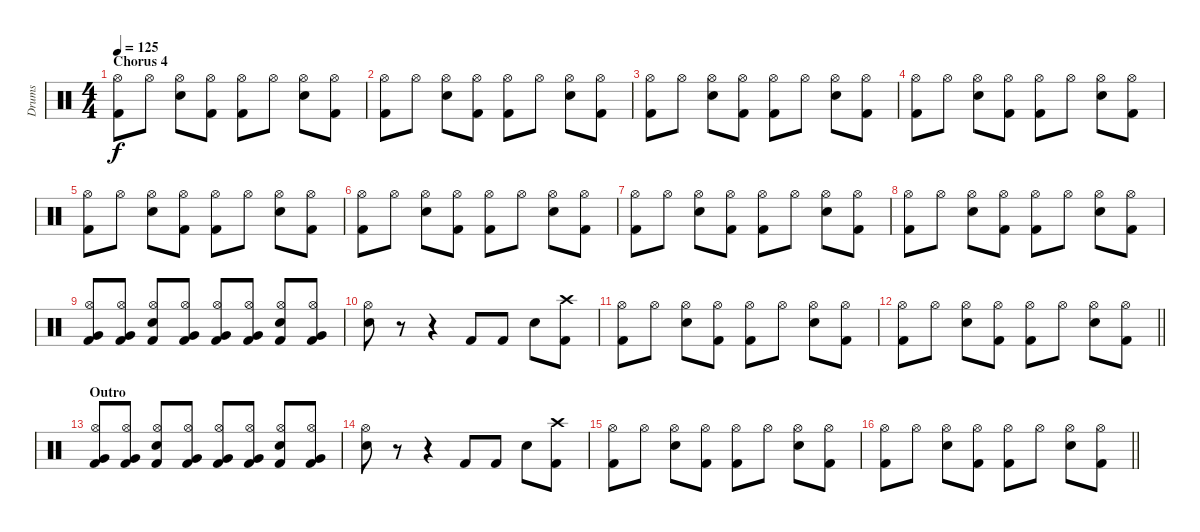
\track ("Drums" "Drums") {instrument percussion}
\staff {score}
\articulation defaults
\ts (4 4)
\section ("" "Chorus 4")
\tempo 125
\clef neutral
\ks c
("Kick (hit) 2" "Hi-Hat (open)").8{dy f} "Hi-Hat (open)".8 ("Electric Snare (hit)" "Hi-Hat (open)").8 ("Kick (hit) 2" "Hi-Hat (open)").8 ("Kick (hit) 2" "Hi-Hat (open)").8 "Hi-Hat (open)".8 ("Electric Snare (hit)" "Hi-Hat (open)").8 ("Kick (hit) 2" "Hi-Hat (open)").8 |
("Kick (hit) 2" "Hi-Hat (open)").8 "Hi-Hat (open)".8 ("Electric Snare (hit)" "Hi-Hat (open)").8 ("Kick (hit) 2" "Hi-Hat (open)").8 ("Kick (hit) 2" "Hi-Hat (open)").8 "Hi-Hat (open)".8 ("Electric Snare (hit)" "Hi-Hat (open)").8 ("Kick (hit) 2" "Hi-Hat (open)").8 |
("Kick (hit) 2" "Hi-Hat (open)").8 "Hi-Hat (open)".8 ("Electric Snare (hit)" "Hi-Hat (open)").8 ("Kick (hit) 2" "Hi-Hat (open)").8 ("Kick (hit) 2" "Hi-Hat (open)").8 "Hi-Hat (open)".8 ("Electric Snare (hit)" "Hi-Hat (open)").8 ("Kick (hit) 2" "Hi-Hat (open)").8 |
("Kick (hit) 2" "Hi-Hat (open)").8 "Hi-Hat (open)".8 ("Electric Snare (hit)" "Hi-Hat (open)").8 ("Kick (hit) 2" "Hi-Hat (open)").8 ("Kick (hit) 2" "Hi-Hat (open)").8 "Hi-Hat (open)".8 ("Electric Snare (hit)" "Hi-Hat (open)").8 ("Kick (hit) 2" "Hi-Hat (open)").8 |
("Kick (hit) 2" "Hi-Hat (open)").8 "Hi-Hat (open)".8 ("Electric Snare (hit)" "Hi-Hat (open)").8 ("Kick (hit) 2" "Hi-Hat (open)").8 ("Kick (hit) 2" "Hi-Hat (open)").8 "Hi-Hat (open)".8 ("Electric Snare (hit)" "Hi-Hat (open)").8 ("Kick (hit) 2" "Hi-Hat (open)").8 |
("Kick (hit) 2" "Hi-Hat (open)").8 "Hi-Hat (open)".8 ("Electric Snare (hit)" "Hi-Hat (open)").8 ("Kick (hit) 2" "Hi-Hat (open)").8 ("Kick (hit) 2" "Hi-Hat (open)").8 "Hi-Hat (open)".8 ("Electric Snare (hit)" "Hi-Hat (open)").8 ("Kick (hit) 2" "Hi-Hat (open)").8 |
("Kick (hit) 2" "Hi-Hat (open)").8 "Hi-Hat (open)".8 ("Electric Snare (hit)" "Hi-Hat (open)").8 ("Kick (hit) 2" "Hi-Hat (open)").8 ("Kick (hit) 2" "Hi-Hat (open)").8 "Hi-Hat (open)".8 ("Electric Snare (hit)" "Hi-Hat (open)").8 ("Kick (hit) 2" "Hi-Hat (open)").8 |
("Kick (hit) 2" "Hi-Hat (open)").8 "Hi-Hat (open)".8 ("Electric Snare (hit)" "Hi-Hat (open)").8 ("Kick (hit) 2" "Hi-Hat (open)").8 ("Kick (hit) 2" "Hi-Hat (open)").8 "Hi-Hat (open)".8 ("Electric Snare (hit)" "Hi-Hat (open)").8 ("Kick (hit) 2" "Hi-Hat (open)").8 |
("Very Low Tom (hit)" "Kick (hit) 2" "Hi-Hat (open)").8 ("Very Low Tom (hit)" "Kick (hit) 2" "Hi-Hat (open)").8 ("Electric Snare (hit)" "Kick (hit) 2" "Hi-Hat (open)").8 ("Very Low Tom (hit)" "Kick (hit) 2" "Hi-Hat (open)").8 ("Very Low Tom (hit)" "Kick (hit) 2" "Hi-Hat (open)").8 ("Very Low Tom (hit)" "Kick (hit) 2" "Hi-Hat (open)").8 ("Electric Snare (hit)" "Kick (hit) 2" "Hi-Hat (open)").8 ("Very Low Tom (hit)" "Kick (hit) 2" "Hi-Hat (open)").8 |
("Electric Snare (hit)" "Hi-Hat (open)").8 r.8 r.4 "Kick (hit) 2".8 "Kick (hit) 2".8 "Electric Snare (hit)".8 ("Kick (hit) 2" "Crash high (hit)").8 |
("Kick (hit) 2" "Hi-Hat (open)").8 "Hi-Hat (open)".8 ("Electric Snare (hit)" "Hi-Hat (open)").8 ("Kick (hit) 2" "Hi-Hat (open)").8 ("Kick (hit) 2" "Hi-Hat (open)").8 "Hi-Hat (open)".8 ("Electric Snare (hit)" "Hi-Hat (open)").8 ("Kick (hit) 2" "Hi-Hat (open)").8 |
\barLineRight lightlight
("Kick (hit) 2" "Hi-Hat (open)").8 "Hi-Hat (open)".8 ("Electric Snare (hit)" "Hi-Hat (open)").8 ("Kick (hit) 2" "Hi-Hat (open)").8 ("Kick (hit) 2" "Hi-Hat (open)").8 "Hi-Hat (open)".8 ("Electric Snare (hit)" "Hi-Hat (open)").8 ("Kick (hit) 2" "Hi-Hat (open)").8 |
\section ("" "Outro")
("Very Low Tom (hit)" "Kick (hit) 2" "Hi-Hat (open)").8 ("Very Low Tom (hit)" "Kick (hit) 2" "Hi-Hat (open)").8 ("Electric Snare (hit)" "Kick (hit) 2" "Hi-Hat (open)").8 ("Very Low Tom (hit)" "Kick (hit) 2" "Hi-Hat (open)").8 ("Very Low Tom (hit)" "Kick (hit) 2" "Hi-Hat (open)").8 ("Very Low Tom (hit)" "Kick (hit) 2" "Hi-Hat (open)").8 ("Electric Snare (hit)" "Kick (hit) 2" "Hi-Hat (open)").8 ("Very Low Tom (hit)" "Kick (hit) 2" "Hi-Hat (open)").8 |
("Electric Snare (hit)" "Hi-Hat (open)").8 r.8 r.4 "Kick (hit) 2".8 "Kick (hit) 2".8 "Electric Snare (hit)".8 ("Kick (hit) 2" "Crash high (hit)").8 |
("Kick (hit) 2" "Hi-Hat (open)").8 "Hi-Hat (open)".8 ("Electric Snare (hit)" "Hi-Hat (open)").8 ("Kick (hit) 2" "Hi-Hat (open)").8 ("Kick (hit) 2" "Hi-Hat (open)").8 "Hi-Hat (open)".8 ("Electric Snare (hit)" "Hi-Hat (open)").8 ("Kick (hit) 2" "Hi-Hat (open)").8 |
\barLineRight lightlight
("Kick (hit) 2" "Hi-Hat (open)").8 "Hi-Hat (open)".8 ("Electric Snare (hit)" "Hi-Hat (open)").8 ("Kick (hit) 2" "Hi-Hat (open)").8 ("Kick (hit) 2" "Hi-Hat (open)").8 "Hi-Hat (open)".8 ("Electric Snare (hit)" "Hi-Hat (open)").8 ("Kick (hit) 2" "Hi-Hat (open)").8
